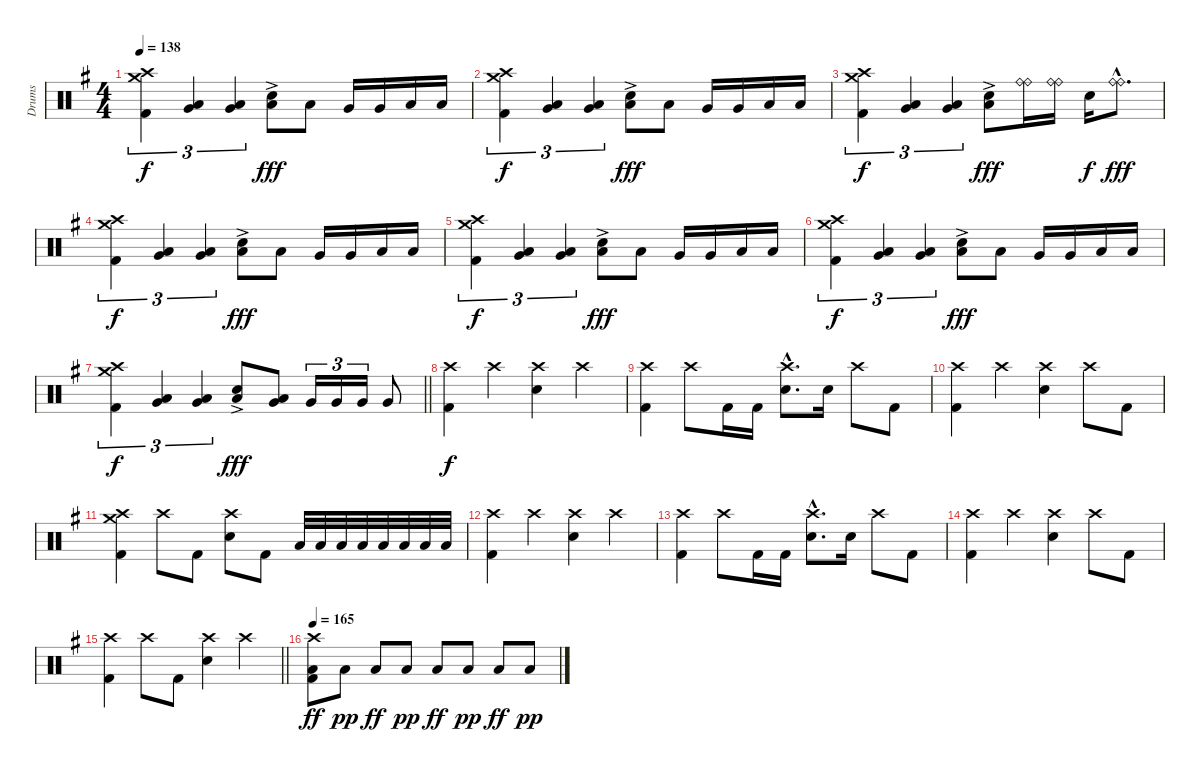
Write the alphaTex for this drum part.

\track ("Drums" "Drums") {instrument percussion}
\staff {score}
\articulation defaults
\ts (4 4)
\tempo 138
\clef neutral
\ks eminor
("Crash high (hit)" "Crash medium (hit)" "Kick (hit) 2").4{tu (3 2) dy f} ("Low Tom (hit)" "Very Low Tom (hit)").4{tu (3 2)} ("Very Low Tom (hit)" "Low Floor Tom (hit)").4{tu (3 2)} ("Snare (hit) 2"{ac} "Low Floor Tom (hit)").8{dy fff} "Low Tom (hit)".8 "Very Low Tom (hit)".16 "Very Low Tom (hit)".16 "Low Floor Tom (hit)".16 "Low Floor Tom (hit)".16 |
("Crash high (hit)" "Crash medium (hit)" "Kick (hit) 2").4{tu (3 2) dy f} ("Low Tom (hit)" "Very Low Tom (hit)").4{tu (3 2)} ("Very Low Tom (hit)" "Low Floor Tom (hit)").4{tu (3 2)} ("Snare (hit) 2"{ac} "Low Floor Tom (hit)").8{dy fff} "Low Tom (hit)".8 "Very Low Tom (hit)".16 "Very Low Tom (hit)".16 "Low Floor Tom (hit)".16 "Low Floor Tom (hit)".16 |
("Crash high (hit)" "Crash medium (hit)" "Kick (hit) 2").4{tu (3 2) dy f} ("Low Tom (hit)" "Very Low Tom (hit)").4{tu (3 2)} ("Very Low Tom (hit)" "Low Floor Tom (hit)").4{tu (3 2)} ("Snare (hit) 2"{ac} "Low Floor Tom (hit)").8{dy fff} ("Ride (bell)" "Ride (bell)").16 ("Ride (bell)" "Ride (bell)").16 "Snare (hit) 2".16{dy f} ("Ride (bell)"{hac} "Ride (bell)"{hac}).8{d dy fff} |
("Crash high (hit)" "Crash medium (hit)" "Kick (hit) 2").4{tu (3 2) dy f} ("Low Tom (hit)" "Very Low Tom (hit)").4{tu (3 2)} ("Very Low Tom (hit)" "Low Floor Tom (hit)").4{tu (3 2)} ("Snare (hit) 2"{ac} "Low Floor Tom (hit)").8{dy fff} "Low Tom (hit)".8 "Very Low Tom (hit)".16 "Very Low Tom (hit)".16 "Low Floor Tom (hit)".16 "Low Floor Tom (hit)".16 |
("Crash high (hit)" "Crash medium (hit)" "Kick (hit) 2").4{tu (3 2) dy f} ("Low Tom (hit)" "Very Low Tom (hit)").4{tu (3 2)} ("Very Low Tom (hit)" "Low Floor Tom (hit)").4{tu (3 2)} ("Snare (hit) 2"{ac} "Low Floor Tom (hit)").8{dy fff} "Low Tom (hit)".8 "Very Low Tom (hit)".16 "Very Low Tom (hit)".16 "Low Floor Tom (hit)".16 "Low Floor Tom (hit)".16 |
("Crash high (hit)" "Crash medium (hit)" "Kick (hit) 2").4{tu (3 2) dy f} ("Low Tom (hit)" "Very Low Tom (hit)").4{tu (3 2)} ("Very Low Tom (hit)" "Low Floor Tom (hit)").4{tu (3 2)} ("Snare (hit) 2"{ac} "Low Floor Tom (hit)").8{dy fff} "Low Tom (hit)".8 "Very Low Tom (hit)".16 "Very Low Tom (hit)".16 "Low Floor Tom (hit)".16 "Low Floor Tom (hit)".16 |
\barLineRight lightlight
("Crash high (hit)" "Crash medium (hit)" "Kick (hit) 2").4{tu (3 2) dy f} ("Low Tom (hit)" "Very Low Tom (hit)").4{tu (3 2)} ("Very Low Tom (hit)" "Low Floor Tom (hit)").4{tu (3 2)} ("Snare (hit) 2"{ac} "Low Floor Tom (hit)").8{dy fff} ("Low Tom (hit)" "Very Low Tom (hit)").8 "Very Low Tom (hit)".16{tu (3 2)} "Very Low Tom (hit)".16{tu (3 2)} "Very Low Tom (hit)".16{tu (3 2)} "Very Low Tom (hit)".8 |
("Crash high (hit)" "Kick (hit) 2").4{dy f} "Crash high (hit)".4 ("Crash high (hit)" "Snare (hit) 2").4 "Crash high (hit)".4 |
("Crash high (hit)" "Kick (hit) 2").4 "Crash high (hit)".8 "Kick (hit) 2".16 "Kick (hit) 2".16 ("Crash high (hit)"{hac} "Snare (hit) 2"{hac}).8{d} "Snare (hit) 2".16 "Crash high (hit)".8 "Kick (hit) 2".8 |
("Crash high (hit)" "Kick (hit) 2").4 "Crash high (hit)".4 ("Crash high (hit)" "Snare (hit) 2").4 "Crash high (hit)".8 "Kick (hit) 2".8 |
("Crash high (hit)" "Crash medium (hit)" "Kick (hit) 2").4 "Crash high (hit)".8 "Kick (hit) 2".8 ("Crash high (hit)" "Snare (hit) 2").8 "Kick (hit) 2".8 "Low Tom (hit)".32 "Low Tom (hit)".32 "Low Tom (hit)".32 "Low Tom (hit)".32 "Low Tom (hit)".32 "Low Tom (hit)".32 "Low Tom (hit)".32 "Low Tom (hit)".32 |
("Crash high (hit)" "Kick (hit) 2").4 "Crash high (hit)".4 ("Crash high (hit)" "Snare (hit) 2").4 "Crash high (hit)".4 |
("Crash high (hit)" "Kick (hit) 2").4 "Crash high (hit)".8 "Kick (hit) 2".16 "Kick (hit) 2".16 ("Crash high (hit)"{hac} "Snare (hit) 2"{hac}).8{d} "Snare (hit) 2".16 "Crash high (hit)".8 "Kick (hit) 2".8 |
("Crash high (hit)" "Kick (hit) 2").4 "Crash high (hit)".4 ("Crash high (hit)" "Snare (hit) 2").4 "Crash high (hit)".8 "Kick (hit) 2".8 |
\barLineRight lightlight
("Crash high (hit)" "Kick (hit) 2").4 "Crash high (hit)".8 "Kick (hit) 2".8 ("Crash high (hit)" "Snare (hit) 2").4 "Crash high (hit)".4 |
\tempo 165
("Crash high (hit)" "Low Tom (hit)" "Kick (hit) 2").8{dy ff} "Low Tom (hit)".8{dy pp} "Low Tom (hit)".8{dy ff} "Low Tom (hit)".8{dy pp} "Low Tom (hit)".8{dy ff} "Low Tom (hit)".8{dy pp} "Low Tom (hit)".8{dy ff} "Low Tom (hit)".8{dy pp}
